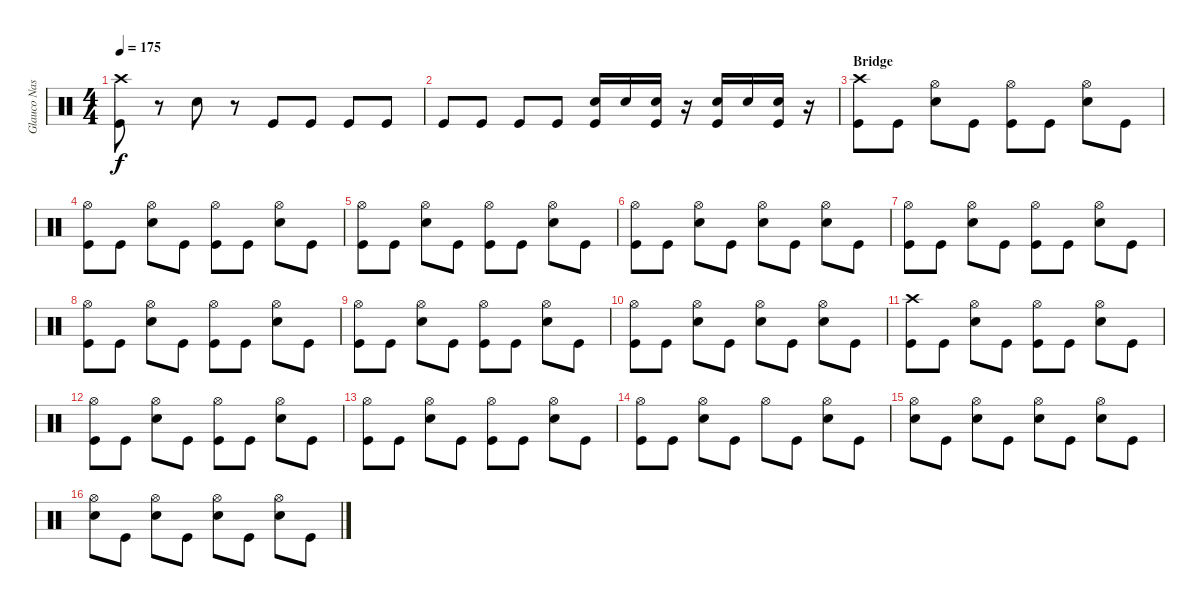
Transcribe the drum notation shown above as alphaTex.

\track ("Glauco Nastácia" "Glauco Nas") {instrument percussion}
\staff {score}
\articulation defaults
\ts (4 4)
\tempo 175
\clef neutral
\ks c
("Crash high (hit)" "Kick (hit)").8{dy f} r.8 "Electric Snare (hit)".8 r.8 "Kick (hit)".8 "Kick (hit)".8 "Kick (hit)".8 "Kick (hit)".8 |
"Kick (hit)".8 "Kick (hit)".8 "Kick (hit)".8 "Kick (hit)".8 ("Electric Snare (hit)" "Kick (hit)").16 "Electric Snare (hit)".16 ("Electric Snare (hit)" "Kick (hit)").16 r.16 ("Electric Snare (hit)" "Kick (hit)").16 "Electric Snare (hit)".16 ("Electric Snare (hit)" "Kick (hit)").16 r.16 |
\section ("" "Bridge")
("Crash high (hit)" "Kick (hit)").8 "Kick (hit)".8 ("Hi-Hat (open)" "Electric Snare (hit)").8 "Kick (hit)".8 ("Hi-Hat (open)" "Kick (hit)").8 "Kick (hit)".8 ("Hi-Hat (open)" "Electric Snare (hit)").8 "Kick (hit)".8 |
("Hi-Hat (open)" "Kick (hit)").8 "Kick (hit)".8 ("Hi-Hat (open)" "Electric Snare (hit)").8 "Kick (hit)".8 ("Hi-Hat (open)" "Kick (hit)").8 "Kick (hit)".8 ("Hi-Hat (open)" "Electric Snare (hit)").8 "Kick (hit)".8 |
("Hi-Hat (open)" "Kick (hit)").8 "Kick (hit)".8 ("Hi-Hat (open)" "Electric Snare (hit)").8 "Kick (hit)".8 ("Hi-Hat (open)" "Kick (hit)").8 "Kick (hit)".8 ("Hi-Hat (open)" "Electric Snare (hit)").8 "Kick (hit)".8 |
("Hi-Hat (open)" "Kick (hit)").8 "Kick (hit)".8 ("Hi-Hat (open)" "Electric Snare (hit)").8 "Kick (hit)".8 ("Hi-Hat (open)" "Electric Snare (hit)").8 "Kick (hit)".8 ("Hi-Hat (open)" "Electric Snare (hit)").8 "Kick (hit)".8 |
("Hi-Hat (open)" "Kick (hit)").8 "Kick (hit)".8 ("Hi-Hat (open)" "Electric Snare (hit)").8 "Kick (hit)".8 ("Hi-Hat (open)" "Kick (hit)").8 "Kick (hit)".8 ("Hi-Hat (open)" "Electric Snare (hit)").8 "Kick (hit)".8 |
("Hi-Hat (open)" "Kick (hit)").8 "Kick (hit)".8 ("Hi-Hat (open)" "Electric Snare (hit)").8 "Kick (hit)".8 ("Hi-Hat (open)" "Kick (hit)").8 "Kick (hit)".8 ("Hi-Hat (open)" "Electric Snare (hit)").8 "Kick (hit)".8 |
("Hi-Hat (open)" "Kick (hit)").8 "Kick (hit)".8 ("Hi-Hat (open)" "Electric Snare (hit)").8 "Kick (hit)".8 ("Hi-Hat (open)" "Kick (hit)").8 "Kick (hit)".8 ("Hi-Hat (open)" "Electric Snare (hit)").8 "Kick (hit)".8 |
("Hi-Hat (open)" "Kick (hit)").8 "Kick (hit)".8 ("Hi-Hat (open)" "Electric Snare (hit)").8 "Kick (hit)".8 ("Hi-Hat (open)" "Electric Snare (hit)").8 "Kick (hit)".8 ("Hi-Hat (open)" "Electric Snare (hit)").8 "Kick (hit)".8 |
("Crash high (hit)" "Kick (hit)").8 "Kick (hit)".8 ("Hi-Hat (open)" "Electric Snare (hit)").8 "Kick (hit)".8 ("Hi-Hat (open)" "Kick (hit)").8 "Kick (hit)".8 ("Hi-Hat (open)" "Electric Snare (hit)").8 "Kick (hit)".8 |
("Hi-Hat (open)" "Kick (hit)").8 "Kick (hit)".8 ("Hi-Hat (open)" "Electric Snare (hit)").8 "Kick (hit)".8 ("Hi-Hat (open)" "Kick (hit)").8 "Kick (hit)".8 ("Hi-Hat (open)" "Electric Snare (hit)").8 "Kick (hit)".8 |
("Hi-Hat (open)" "Kick (hit)").8 "Kick (hit)".8 ("Hi-Hat (open)" "Electric Snare (hit)").8 "Kick (hit)".8 ("Hi-Hat (open)" "Kick (hit)").8 "Kick (hit)".8 ("Hi-Hat (open)" "Electric Snare (hit)").8 "Kick (hit)".8 |
("Hi-Hat (open)" "Kick (hit)").8 "Kick (hit)".8 ("Hi-Hat (open)" "Electric Snare (hit)").8 "Kick (hit)".8 "Hi-Hat (open)".8 "Kick (hit)".8 ("Hi-Hat (open)" "Electric Snare (hit)").8 "Kick (hit)".8 |
("Hi-Hat (open)" "Electric Snare (hit)").8 "Kick (hit)".8 ("Hi-Hat (open)" "Electric Snare (hit)").8 "Kick (hit)".8 ("Hi-Hat (open)" "Electric Snare (hit)").8 "Kick (hit)".8 ("Hi-Hat (open)" "Electric Snare (hit)").8 "Kick (hit)".8 |
("Hi-Hat (open)" "Electric Snare (hit)").8 "Kick (hit)".8 ("Hi-Hat (open)" "Electric Snare (hit)").8 "Kick (hit)".8 ("Hi-Hat (open)" "Electric Snare (hit)").8 "Kick (hit)".8 ("Hi-Hat (open)" "Electric Snare (hit)").8 "Kick (hit)".8
